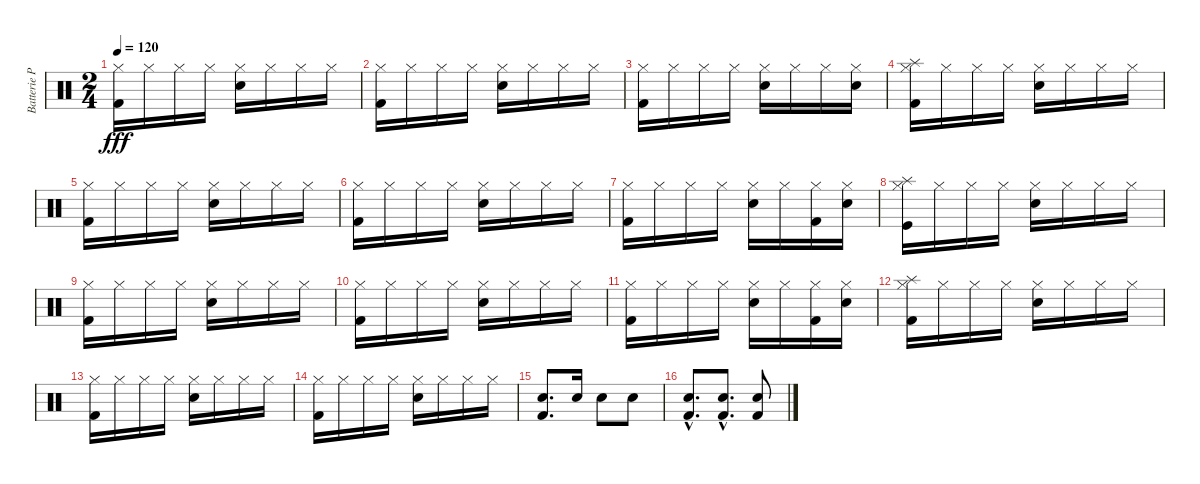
\track ("Batterie Pako" "Batterie P") {instrument percussion}
\staff {score}
\articulation defaults
\ts (2 4)
\tempo 120
\clef neutral
\ks c
("Kick (hit) 2" "Hi-Hat (closed)").16{dy fff} "Hi-Hat (closed)".16 "Hi-Hat (closed)".16 "Hi-Hat (closed)".16 ("Hi-Hat (closed)" "Electric Snare (hit)").16 "Hi-Hat (closed)".16 "Hi-Hat (closed)".16 "Hi-Hat (closed)".16 |
("Kick (hit) 2" "Hi-Hat (closed)").16 "Hi-Hat (closed)".16 "Hi-Hat (closed)".16 "Hi-Hat (closed)".16 ("Hi-Hat (closed)" "Electric Snare (hit)").16 "Hi-Hat (closed)".16 "Hi-Hat (closed)".16 "Hi-Hat (closed)".16 |
("Kick (hit) 2" "Hi-Hat (closed)").16 "Hi-Hat (closed)".16 "Hi-Hat (closed)".16 "Hi-Hat (closed)".16 ("Electric Snare (hit)" "Hi-Hat (closed)").16 "Hi-Hat (closed)".16 "Hi-Hat (closed)".16 ("Electric Snare (hit)" "Hi-Hat (closed)").16 |
("Kick (hit) 2" "Hi-Hat (closed)" "Splash (hit)").16 "Hi-Hat (closed)".16 "Hi-Hat (closed)".16 "Hi-Hat (closed)".16 ("Hi-Hat (closed)" "Electric Snare (hit)").16 "Hi-Hat (closed)".16 "Hi-Hat (closed)".16 "Hi-Hat (closed)".16 |
("Kick (hit) 2" "Hi-Hat (closed)").16 "Hi-Hat (closed)".16 "Hi-Hat (closed)".16 "Hi-Hat (closed)".16 ("Hi-Hat (closed)" "Electric Snare (hit)").16 "Hi-Hat (closed)".16 "Hi-Hat (closed)".16 "Hi-Hat (closed)".16 |
("Kick (hit) 2" "Hi-Hat (closed)").16 "Hi-Hat (closed)".16 "Hi-Hat (closed)".16 "Hi-Hat (closed)".16 ("Hi-Hat (closed)" "Electric Snare (hit)").16 "Hi-Hat (closed)".16 "Hi-Hat (closed)".16 "Hi-Hat (closed)".16 |
("Kick (hit) 2" "Hi-Hat (closed)").16 "Hi-Hat (closed)".16 "Hi-Hat (closed)".16 "Hi-Hat (closed)".16 ("Electric Snare (hit)" "Hi-Hat (closed)").16 "Hi-Hat (closed)".16 ("Kick (hit) 2" "Hi-Hat (closed)").16 ("Electric Snare (hit)" "Hi-Hat (closed)").16 |
("Hi-Hat (closed)" "Kick (hit)" "Splash (hit)").16 "Hi-Hat (closed)".16 "Hi-Hat (closed)".16 "Hi-Hat (closed)".16 ("Hi-Hat (closed)" "Electric Snare (hit)").16 "Hi-Hat (closed)".16 "Hi-Hat (closed)".16 "Hi-Hat (closed)".16 |
("Kick (hit) 2" "Hi-Hat (closed)").16 "Hi-Hat (closed)".16 "Hi-Hat (closed)".16 "Hi-Hat (closed)".16 ("Hi-Hat (closed)" "Electric Snare (hit)").16 "Hi-Hat (closed)".16 "Hi-Hat (closed)".16 "Hi-Hat (closed)".16 |
("Kick (hit) 2" "Hi-Hat (closed)").16 "Hi-Hat (closed)".16 "Hi-Hat (closed)".16 "Hi-Hat (closed)".16 ("Hi-Hat (closed)" "Electric Snare (hit)").16 "Hi-Hat (closed)".16 "Hi-Hat (closed)".16 "Hi-Hat (closed)".16 |
("Kick (hit) 2" "Hi-Hat (closed)").16 "Hi-Hat (closed)".16 "Hi-Hat (closed)".16 "Hi-Hat (closed)".16 ("Electric Snare (hit)" "Hi-Hat (closed)").16 "Hi-Hat (closed)".16 ("Kick (hit) 2" "Hi-Hat (closed)").16 ("Electric Snare (hit)" "Hi-Hat (closed)").16 |
("Kick (hit) 2" "Hi-Hat (closed)" "Splash (hit)").16 "Hi-Hat (closed)".16 "Hi-Hat (closed)".16 "Hi-Hat (closed)".16 ("Hi-Hat (closed)" "Electric Snare (hit)").16 "Hi-Hat (closed)".16 "Hi-Hat (closed)".16 "Hi-Hat (closed)".16 |
("Kick (hit) 2" "Hi-Hat (closed)").16 "Hi-Hat (closed)".16 "Hi-Hat (closed)".16 "Hi-Hat (closed)".16 ("Hi-Hat (closed)" "Electric Snare (hit)").16 "Hi-Hat (closed)".16 "Hi-Hat (closed)".16 "Hi-Hat (closed)".16 |
("Kick (hit) 2" "Hi-Hat (closed)").16 "Hi-Hat (closed)".16 "Hi-Hat (closed)".16 "Hi-Hat (closed)".16 ("Hi-Hat (closed)" "Electric Snare (hit)").16 "Hi-Hat (closed)".16 "Hi-Hat (closed)".16 "Hi-Hat (closed)".16 |
("Kick (hit) 2" "Electric Snare (hit)").8{d} "Electric Snare (hit)".16 "Electric Snare (hit)".8 "Electric Snare (hit)".8 |
("Kick (hit) 2"{hac} "Electric Snare (hit)"{hac}).8{d} ("Kick (hit) 2"{hac} "Electric Snare (hit)"{hac}).8{d} ("Kick (hit) 2" "Electric Snare (hit)").8
